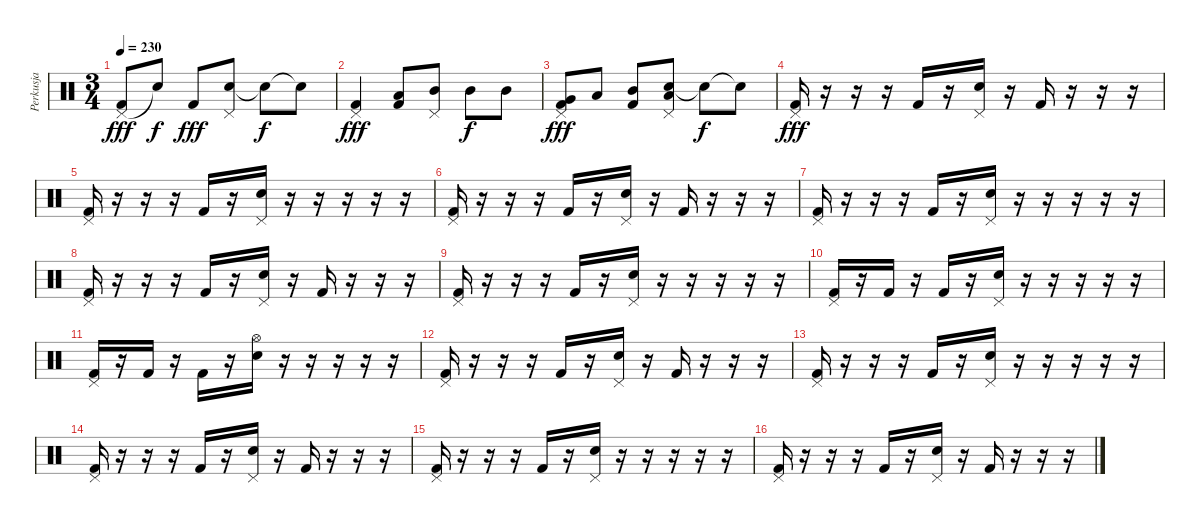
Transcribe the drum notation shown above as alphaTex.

\track ("Perkusja" "Perkusja") {instrument percussion}
\staff {score}
\articulation defaults
\ts (3 4)
\tempo 230
\clef neutral
\ks c
("Pedal Hi-Hat (hit)" "Kick (hit) 2").8{dy fff} "Snare (hit)"{t}.8{dy f} "Kick (hit) 2".8{dy fff} ("Snare (hit) 2" "Pedal Hi-Hat (hit)").8 "Snare (hit)"{t}.8{dy f} "Snare (hit)"{t}.8 |
("Pedal Hi-Hat (hit)" "Kick (hit) 2").4{dy fff} ("Low Tom (hit)" "Kick (hit) 2").8 ("Mid Tom (hit)" "Pedal Hi-Hat (hit)").8 "Mid Tom (hit)".8{dy f} "Mid Tom (hit)".8 |
("Very Low Tom (hit)" "Pedal Hi-Hat (hit)" "Kick (hit) 2").8{dy fff} "Low Tom (hit)".8 ("Mid Tom (hit)" "Kick (hit) 2").8 ("Snare (hit) 2" "Low Tom (hit)" "Pedal Hi-Hat (hit)").8 "Snare (hit)"{t}.8{dy f} "Snare (hit)"{t}.8 |
("Pedal Hi-Hat (hit)" "Kick (hit) 2").16{dy fff} r.16 r.16 r.16 "Kick (hit) 2".16 r.16 ("Snare (hit) 2" "Pedal Hi-Hat (hit)").16 r.16 "Kick (hit) 2".16 r.16 r.16 r.16 |
("Pedal Hi-Hat (hit)" "Kick (hit) 2").16 r.16 r.16 r.16 "Kick (hit) 2".16 r.16 ("Snare (hit) 2" "Pedal Hi-Hat (hit)").16 r.16 r.16 r.16 r.16 r.16 |
("Pedal Hi-Hat (hit)" "Kick (hit) 2").16 r.16 r.16 r.16 "Kick (hit) 2".16 r.16 ("Snare (hit) 2" "Pedal Hi-Hat (hit)").16 r.16 "Kick (hit) 2".16 r.16 r.16 r.16 |
("Pedal Hi-Hat (hit)" "Kick (hit) 2").16 r.16 r.16 r.16 "Kick (hit) 2".16 r.16 ("Snare (hit) 2" "Pedal Hi-Hat (hit)").16 r.16 r.16 r.16 r.16 r.16 |
("Pedal Hi-Hat (hit)" "Kick (hit) 2").16 r.16 r.16 r.16 "Kick (hit) 2".16 r.16 ("Snare (hit) 2" "Pedal Hi-Hat (hit)").16 r.16 "Kick (hit) 2".16 r.16 r.16 r.16 |
("Pedal Hi-Hat (hit)" "Kick (hit) 2").16 r.16 r.16 r.16 "Kick (hit) 2".16 r.16 ("Snare (hit) 2" "Pedal Hi-Hat (hit)").16 r.16 r.16 r.16 r.16 r.16 |
("Pedal Hi-Hat (hit)" "Kick (hit) 2").16 r.16 "Kick (hit) 2".16 r.16 "Kick (hit) 2".16 r.16 ("Snare (hit) 2" "Pedal Hi-Hat (hit)").16 r.16 r.16 r.16 r.16 r.16 |
("Pedal Hi-Hat (hit)" "Kick (hit) 2").16 r.16 "Kick (hit) 2".16 r.16 "Kick (hit) 2".16 r.16 ("Snare (hit) 2" "Hi-Hat (open)").16 r.16 r.16 r.16 r.16 r.16 |
("Pedal Hi-Hat (hit)" "Kick (hit) 2").16 r.16 r.16 r.16 "Kick (hit) 2".16 r.16 ("Snare (hit) 2" "Pedal Hi-Hat (hit)").16 r.16 "Kick (hit) 2".16 r.16 r.16 r.16 |
("Pedal Hi-Hat (hit)" "Kick (hit) 2").16 r.16 r.16 r.16 "Kick (hit) 2".16 r.16 ("Snare (hit) 2" "Pedal Hi-Hat (hit)").16 r.16 r.16 r.16 r.16 r.16 |
("Pedal Hi-Hat (hit)" "Kick (hit) 2").16 r.16 r.16 r.16 "Kick (hit) 2".16 r.16 ("Snare (hit) 2" "Pedal Hi-Hat (hit)").16 r.16 "Kick (hit) 2".16 r.16 r.16 r.16 |
("Pedal Hi-Hat (hit)" "Kick (hit) 2").16 r.16 r.16 r.16 "Kick (hit) 2".16 r.16 ("Snare (hit) 2" "Pedal Hi-Hat (hit)").16 r.16 r.16 r.16 r.16 r.16 |
("Pedal Hi-Hat (hit)" "Kick (hit) 2").16 r.16 r.16 r.16 "Kick (hit) 2".16 r.16 ("Snare (hit) 2" "Pedal Hi-Hat (hit)").16 r.16 "Kick (hit) 2".16 r.16 r.16 r.16
